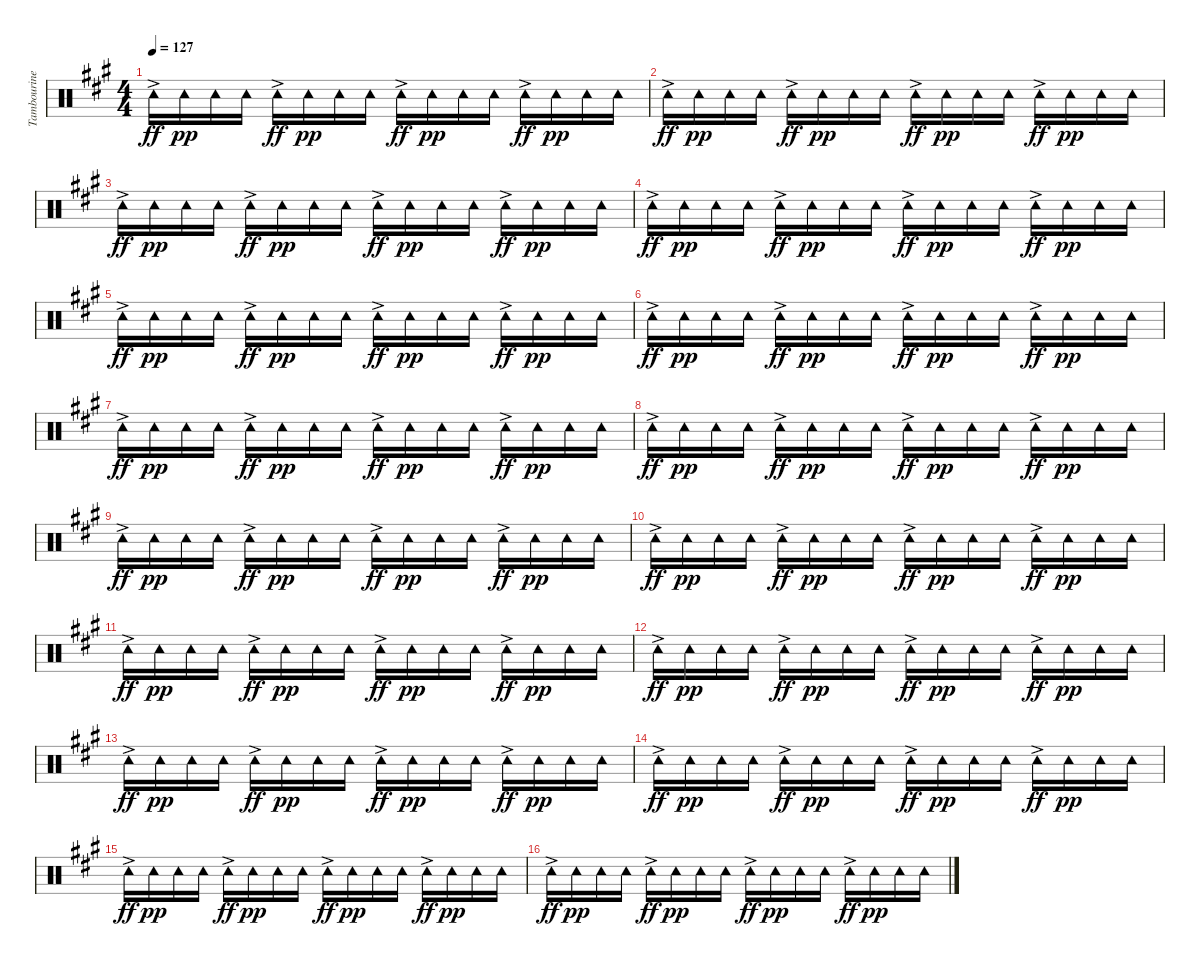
\track ("Tambourine" "Tambourine") {instrument percussion}
\staff {score}
\articulation defaults
\ts (4 4)
\tempo 127
\clef neutral
\ks a "Tambourine (hit)"{ac}.16{dy ff} "Tambourine (hit)".16{dy pp} "Tambourine (hit)".16 "Tambourine (hit)".16 "Tambourine (hit)"{ac}.16{dy ff} "Tambourine (hit)".16{dy pp} "Tambourine (hit)".16 "Tambourine (hit)".16 "Tambourine (hit)"{ac}.16{dy ff} "Tambourine (hit)".16{dy pp} "Tambourine (hit)".16 "Tambourine (hit)".16 "Tambourine (hit)"{ac}.16{dy ff} "Tambourine (hit)".16{dy pp} "Tambourine (hit)".16 "Tambourine (hit)".16
|
"Tambourine (hit)"{ac}.16{dy ff} "Tambourine (hit)".16{dy pp} "Tambourine (hit)".16 "Tambourine (hit)".16 "Tambourine (hit)"{ac}.16{dy ff} "Tambourine (hit)".16{dy pp} "Tambourine (hit)".16 "Tambourine (hit)".16 "Tambourine (hit)"{ac}.16{dy ff} "Tambourine (hit)".16{dy pp} "Tambourine (hit)".16 "Tambourine (hit)".16 "Tambourine (hit)"{ac}.16{dy ff} "Tambourine (hit)".16{dy pp} "Tambourine (hit)".16 "Tambourine (hit)".16 |
"Tambourine (hit)"{ac}.16{dy ff} "Tambourine (hit)".16{dy pp} "Tambourine (hit)".16 "Tambourine (hit)".16 "Tambourine (hit)"{ac}.16{dy ff} "Tambourine (hit)".16{dy pp} "Tambourine (hit)".16 "Tambourine (hit)".16 "Tambourine (hit)"{ac}.16{dy ff} "Tambourine (hit)".16{dy pp} "Tambourine (hit)".16 "Tambourine (hit)".16 "Tambourine (hit)"{ac}.16{dy ff} "Tambourine (hit)".16{dy pp} "Tambourine (hit)".16 "Tambourine (hit)".16 |
"Tambourine (hit)"{ac}.16{dy ff} "Tambourine (hit)".16{dy pp} "Tambourine (hit)".16 "Tambourine (hit)".16 "Tambourine (hit)"{ac}.16{dy ff} "Tambourine (hit)".16{dy pp} "Tambourine (hit)".16 "Tambourine (hit)".16 "Tambourine (hit)"{ac}.16{dy ff} "Tambourine (hit)".16{dy pp} "Tambourine (hit)".16 "Tambourine (hit)".16 "Tambourine (hit)"{ac}.16{dy ff} "Tambourine (hit)".16{dy pp} "Tambourine (hit)".16 "Tambourine (hit)".16 |
"Tambourine (hit)"{ac}.16{dy ff} "Tambourine (hit)".16{dy pp} "Tambourine (hit)".16 "Tambourine (hit)".16 "Tambourine (hit)"{ac}.16{dy ff} "Tambourine (hit)".16{dy pp} "Tambourine (hit)".16 "Tambourine (hit)".16 "Tambourine (hit)"{ac}.16{dy ff} "Tambourine (hit)".16{dy pp} "Tambourine (hit)".16 "Tambourine (hit)".16 "Tambourine (hit)"{ac}.16{dy ff} "Tambourine (hit)".16{dy pp} "Tambourine (hit)".16 "Tambourine (hit)".16 |
"Tambourine (hit)"{ac}.16{dy ff} "Tambourine (hit)".16{dy pp} "Tambourine (hit)".16 "Tambourine (hit)".16 "Tambourine (hit)"{ac}.16{dy ff} "Tambourine (hit)".16{dy pp} "Tambourine (hit)".16 "Tambourine (hit)".16 "Tambourine (hit)"{ac}.16{dy ff} "Tambourine (hit)".16{dy pp} "Tambourine (hit)".16 "Tambourine (hit)".16 "Tambourine (hit)"{ac}.16{dy ff} "Tambourine (hit)".16{dy pp} "Tambourine (hit)".16 "Tambourine (hit)".16 |
"Tambourine (hit)"{ac}.16{dy ff} "Tambourine (hit)".16{dy pp} "Tambourine (hit)".16 "Tambourine (hit)".16 "Tambourine (hit)"{ac}.16{dy ff} "Tambourine (hit)".16{dy pp} "Tambourine (hit)".16 "Tambourine (hit)".16 "Tambourine (hit)"{ac}.16{dy ff} "Tambourine (hit)".16{dy pp} "Tambourine (hit)".16 "Tambourine (hit)".16 "Tambourine (hit)"{ac}.16{dy ff} "Tambourine (hit)".16{dy pp} "Tambourine (hit)".16 "Tambourine (hit)".16 |
"Tambourine (hit)"{ac}.16{dy ff} "Tambourine (hit)".16{dy pp} "Tambourine (hit)".16 "Tambourine (hit)".16 "Tambourine (hit)"{ac}.16{dy ff} "Tambourine (hit)".16{dy pp} "Tambourine (hit)".16 "Tambourine (hit)".16 "Tambourine (hit)"{ac}.16{dy ff} "Tambourine (hit)".16{dy pp} "Tambourine (hit)".16 "Tambourine (hit)".16 "Tambourine (hit)"{ac}.16{dy ff} "Tambourine (hit)".16{dy pp} "Tambourine (hit)".16 "Tambourine (hit)".16 |
"Tambourine (hit)"{ac}.16{dy ff} "Tambourine (hit)".16{dy pp} "Tambourine (hit)".16 "Tambourine (hit)".16 "Tambourine (hit)"{ac}.16{dy ff} "Tambourine (hit)".16{dy pp} "Tambourine (hit)".16 "Tambourine (hit)".16 "Tambourine (hit)"{ac}.16{dy ff} "Tambourine (hit)".16{dy pp} "Tambourine (hit)".16 "Tambourine (hit)".16 "Tambourine (hit)"{ac}.16{dy ff} "Tambourine (hit)".16{dy pp} "Tambourine (hit)".16 "Tambourine (hit)".16 |
"Tambourine (hit)"{ac}.16{dy ff} "Tambourine (hit)".16{dy pp} "Tambourine (hit)".16 "Tambourine (hit)".16 "Tambourine (hit)"{ac}.16{dy ff} "Tambourine (hit)".16{dy pp} "Tambourine (hit)".16 "Tambourine (hit)".16 "Tambourine (hit)"{ac}.16{dy ff} "Tambourine (hit)".16{dy pp} "Tambourine (hit)".16 "Tambourine (hit)".16 "Tambourine (hit)"{ac}.16{dy ff} "Tambourine (hit)".16{dy pp} "Tambourine (hit)".16 "Tambourine (hit)".16 |
"Tambourine (hit)"{ac}.16{dy ff} "Tambourine (hit)".16{dy pp} "Tambourine (hit)".16 "Tambourine (hit)".16 "Tambourine (hit)"{ac}.16{dy ff} "Tambourine (hit)".16{dy pp} "Tambourine (hit)".16 "Tambourine (hit)".16 "Tambourine (hit)"{ac}.16{dy ff} "Tambourine (hit)".16{dy pp} "Tambourine (hit)".16 "Tambourine (hit)".16 "Tambourine (hit)"{ac}.16{dy ff} "Tambourine (hit)".16{dy pp} "Tambourine (hit)".16 "Tambourine (hit)".16 |
"Tambourine (hit)"{ac}.16{dy ff} "Tambourine (hit)".16{dy pp} "Tambourine (hit)".16 "Tambourine (hit)".16 "Tambourine (hit)"{ac}.16{dy ff} "Tambourine (hit)".16{dy pp} "Tambourine (hit)".16 "Tambourine (hit)".16 "Tambourine (hit)"{ac}.16{dy ff} "Tambourine (hit)".16{dy pp} "Tambourine (hit)".16 "Tambourine (hit)".16 "Tambourine (hit)"{ac}.16{dy ff} "Tambourine (hit)".16{dy pp} "Tambourine (hit)".16 "Tambourine (hit)".16 |
"Tambourine (hit)"{ac}.16{dy ff} "Tambourine (hit)".16{dy pp} "Tambourine (hit)".16 "Tambourine (hit)".16 "Tambourine (hit)"{ac}.16{dy ff} "Tambourine (hit)".16{dy pp} "Tambourine (hit)".16 "Tambourine (hit)".16 "Tambourine (hit)"{ac}.16{dy ff} "Tambourine (hit)".16{dy pp} "Tambourine (hit)".16 "Tambourine (hit)".16 "Tambourine (hit)"{ac}.16{dy ff} "Tambourine (hit)".16{dy pp} "Tambourine (hit)".16 "Tambourine (hit)".16 |
"Tambourine (hit)"{ac}.16{dy ff} "Tambourine (hit)".16{dy pp} "Tambourine (hit)".16 "Tambourine (hit)".16 "Tambourine (hit)"{ac}.16{dy ff} "Tambourine (hit)".16{dy pp} "Tambourine (hit)".16 "Tambourine (hit)".16 "Tambourine (hit)"{ac}.16{dy ff} "Tambourine (hit)".16{dy pp} "Tambourine (hit)".16 "Tambourine (hit)".16 "Tambourine (hit)"{ac}.16{dy ff} "Tambourine (hit)".16{dy pp} "Tambourine (hit)".16 "Tambourine (hit)".16 |
"Tambourine (hit)"{ac}.16{dy ff} "Tambourine (hit)".16{dy pp} "Tambourine (hit)".16 "Tambourine (hit)".16 "Tambourine (hit)"{ac}.16{dy ff} "Tambourine (hit)".16{dy pp} "Tambourine (hit)".16 "Tambourine (hit)".16 "Tambourine (hit)"{ac}.16{dy ff} "Tambourine (hit)".16{dy pp} "Tambourine (hit)".16 "Tambourine (hit)".16 "Tambourine (hit)"{ac}.16{dy ff} "Tambourine (hit)".16{dy pp} "Tambourine (hit)".16 "Tambourine (hit)".16 |
"Tambourine (hit)"{ac}.16{dy ff} "Tambourine (hit)".16{dy pp} "Tambourine (hit)".16 "Tambourine (hit)".16 "Tambourine (hit)"{ac}.16{dy ff} "Tambourine (hit)".16{dy pp} "Tambourine (hit)".16 "Tambourine (hit)".16 "Tambourine (hit)"{ac}.16{dy ff} "Tambourine (hit)".16{dy pp} "Tambourine (hit)".16 "Tambourine (hit)".16 "Tambourine (hit)"{ac}.16{dy ff} "Tambourine (hit)".16{dy pp} "Tambourine (hit)".16 "Tambourine (hit)".16
